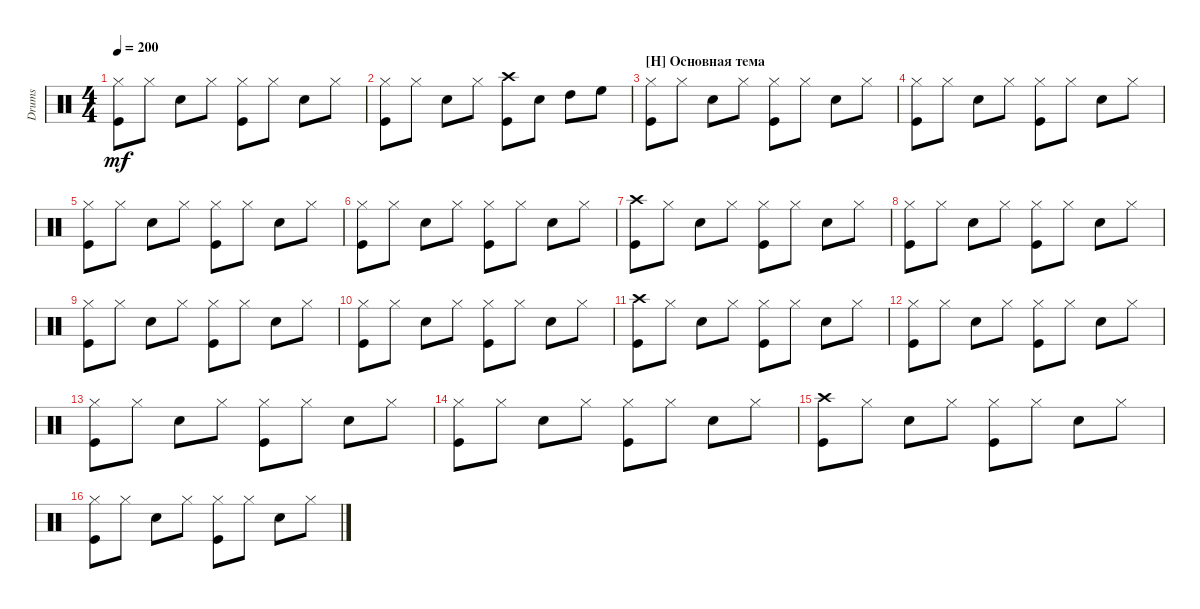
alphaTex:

\track ("Drumkit" "Drums") {instrument percussion}
\staff {score}
\articulation defaults
\ts (4 4)
\tempo 200
\clef neutral
\ks c
("Kick (hit)" "Hi-Hat (closed)").8{dy mf} "Hi-Hat (closed)".8 "Snare (hit) 2".8 "Hi-Hat (closed)".8 ("Kick (hit)" "Hi-Hat (closed)").8 "Hi-Hat (closed)".8 "Snare (hit) 2".8 "Hi-Hat (closed)".8 |
("Kick (hit)" "Hi-Hat (closed)").8 "Hi-Hat (closed)".8 "Snare (hit) 2".8 "Hi-Hat (closed)".8 ("Kick (hit)" "Crash high (hit)").8 "Snare (hit) 2".8 "High Tom (hit)".8 "High Floor Tom (hit)".8 |
\section ("H" "Основная тема")
("Kick (hit)" "Hi-Hat (closed)").8 "Hi-Hat (closed)".8 "Snare (hit) 2".8 "Hi-Hat (closed)".8 ("Kick (hit)" "Hi-Hat (closed)").8 "Hi-Hat (closed)".8 "Snare (hit) 2".8 "Hi-Hat (closed)".8 |
("Kick (hit)" "Hi-Hat (closed)").8 "Hi-Hat (closed)".8 "Snare (hit) 2".8 "Hi-Hat (closed)".8 ("Kick (hit)" "Hi-Hat (closed)").8 "Hi-Hat (closed)".8 "Snare (hit) 2".8 "Hi-Hat (closed)".8 |
("Kick (hit)" "Hi-Hat (closed)").8 "Hi-Hat (closed)".8 "Snare (hit) 2".8 "Hi-Hat (closed)".8 ("Kick (hit)" "Hi-Hat (closed)").8 "Hi-Hat (closed)".8 "Snare (hit) 2".8 "Hi-Hat (closed)".8 |
("Kick (hit)" "Hi-Hat (closed)").8 "Hi-Hat (closed)".8 "Snare (hit) 2".8 "Hi-Hat (closed)".8 ("Kick (hit)" "Hi-Hat (closed)").8 "Hi-Hat (closed)".8 "Snare (hit) 2".8 "Hi-Hat (closed)".8 |
("Kick (hit)" "Crash high (hit)").8 "Hi-Hat (closed)".8 "Snare (hit) 2".8 "Hi-Hat (closed)".8 ("Kick (hit)" "Hi-Hat (closed)").8 "Hi-Hat (closed)".8 "Snare (hit) 2".8 "Hi-Hat (closed)".8 |
("Kick (hit)" "Hi-Hat (closed)").8 "Hi-Hat (closed)".8 "Snare (hit) 2".8 "Hi-Hat (closed)".8 ("Kick (hit)" "Hi-Hat (closed)").8 "Hi-Hat (closed)".8 "Snare (hit) 2".8 "Hi-Hat (closed)".8 |
("Kick (hit)" "Hi-Hat (closed)").8 "Hi-Hat (closed)".8 "Snare (hit) 2".8 "Hi-Hat (closed)".8 ("Kick (hit)" "Hi-Hat (closed)").8 "Hi-Hat (closed)".8 "Snare (hit) 2".8 "Hi-Hat (closed)".8 |
("Kick (hit)" "Hi-Hat (closed)").8 "Hi-Hat (closed)".8 "Snare (hit) 2".8 "Hi-Hat (closed)".8 ("Kick (hit)" "Hi-Hat (closed)").8 "Hi-Hat (closed)".8 "Snare (hit) 2".8 "Hi-Hat (closed)".8 |
("Kick (hit)" "Crash high (hit)").8 "Hi-Hat (closed)".8 "Snare (hit) 2".8 "Hi-Hat (closed)".8 ("Kick (hit)" "Hi-Hat (closed)").8 "Hi-Hat (closed)".8 "Snare (hit) 2".8 "Hi-Hat (closed)".8 |
("Kick (hit)" "Hi-Hat (closed)").8 "Hi-Hat (closed)".8 "Snare (hit) 2".8 "Hi-Hat (closed)".8 ("Kick (hit)" "Hi-Hat (closed)").8 "Hi-Hat (closed)".8 "Snare (hit) 2".8 "Hi-Hat (closed)".8 |
("Kick (hit)" "Hi-Hat (closed)").8 "Hi-Hat (closed)".8 "Snare (hit) 2".8 "Hi-Hat (closed)".8 ("Kick (hit)" "Hi-Hat (closed)").8 "Hi-Hat (closed)".8 "Snare (hit) 2".8 "Hi-Hat (closed)".8 |
("Kick (hit)" "Hi-Hat (closed)").8 "Hi-Hat (closed)".8 "Snare (hit) 2".8 "Hi-Hat (closed)".8 ("Kick (hit)" "Hi-Hat (closed)").8 "Hi-Hat (closed)".8 "Snare (hit) 2".8 "Hi-Hat (closed)".8 |
("Kick (hit)" "Crash high (hit)").8 "Hi-Hat (closed)".8 "Snare (hit) 2".8 "Hi-Hat (closed)".8 ("Kick (hit)" "Hi-Hat (closed)").8 "Hi-Hat (closed)".8 "Snare (hit) 2".8 "Hi-Hat (closed)".8 |
("Kick (hit)" "Hi-Hat (closed)").8 "Hi-Hat (closed)".8 "Snare (hit) 2".8 "Hi-Hat (closed)".8 ("Kick (hit)" "Hi-Hat (closed)").8 "Hi-Hat (closed)".8 "Snare (hit) 2".8 "Hi-Hat (closed)".8
